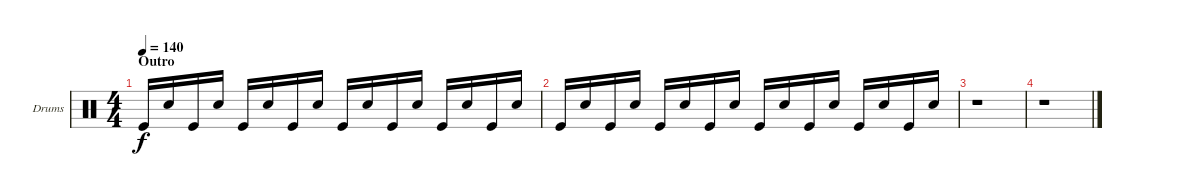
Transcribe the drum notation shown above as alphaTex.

\bracketExtendMode groupsimilarinstruments
\firstSystemTrackNameOrientation horizontal
\otherSystemsTrackNameOrientation horizontal
\track ("Drumkit" "Drums") {instrument percussion}
\staff {score}
\articulation defaults
\ts (4 4)
\section ("" "Outro")
\tempo 140
\clef neutral
\ks c "Kick (hit)".16{dy f} "Snare (hit) 2".16 "Kick (hit)".16 "Snare (hit) 2".16 "Kick (hit)".16 "Snare (hit) 2".16 "Kick (hit)".16 "Snare (hit) 2".16 "Kick (hit)".16 "Snare (hit) 2".16 "Kick (hit)".16 "Snare (hit) 2".16 "Kick (hit)".16 "Snare (hit) 2".16 "Kick (hit)".16 "Snare (hit) 2".16
|
"Kick (hit)".16 "Snare (hit) 2".16 "Kick (hit)".16 "Snare (hit) 2".16 "Kick (hit)".16 "Snare (hit) 2".16 "Kick (hit)".16 "Snare (hit) 2".16 "Kick (hit)".16 "Snare (hit) 2".16 "Kick (hit)".16 "Snare (hit) 2".16 "Kick (hit)".16 "Snare (hit) 2".16 "Kick (hit)".16 "Snare (hit) 2".16 |
r.1 |
r.1
